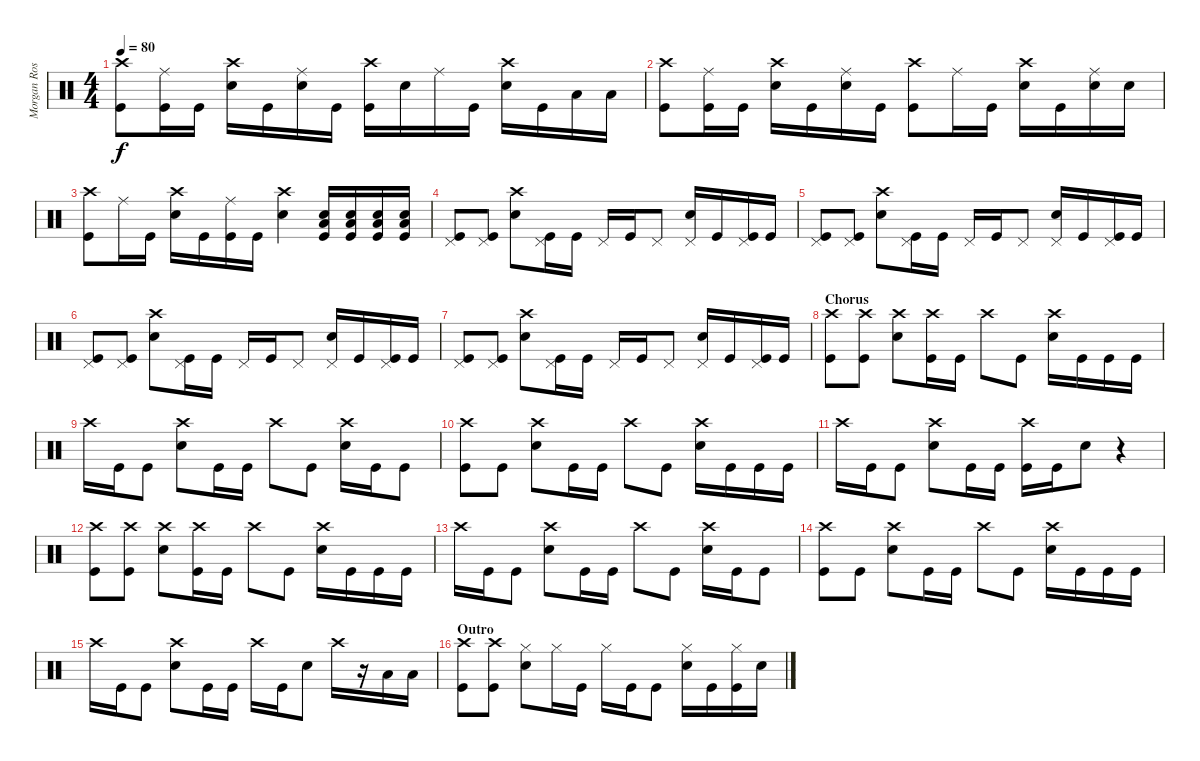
\track ("Morgan Rose" "Morgan Ros") {instrument percussion}
\staff {score}
\articulation defaults
\ts (4 4)
\tempo 80
\clef neutral
\ks c
("Crash high (hit)" "Kick (hit)").8{dy f} ("Ride (middle)" "Kick (hit)").16 "Kick (hit)".16 ("Crash high (hit)" "Snare (hit) 2").16 "Kick (hit)".16 ("Ride (middle)" "Snare (hit) 2").16 "Kick (hit)".16 ("Crash high (hit)" "Kick (hit)").16 "Snare (hit) 2".16 "Ride (middle)".16 "Kick (hit)".16 ("Crash high (hit)" "Snare (hit) 2").16 "Kick (hit)".16 "Low Tom (hit)".16 "Low Tom (hit)".16 |
("Crash high (hit)" "Kick (hit)").8 ("Ride (middle)" "Kick (hit)").16 "Kick (hit)".16 ("Crash high (hit)" "Snare (hit) 2").16 "Kick (hit)".16 ("Ride (middle)" "Snare (hit) 2").16 "Kick (hit)".16 ("Crash high (hit)" "Kick (hit)").8 "Ride (middle)".16 "Kick (hit)".16 ("Crash high (hit)" "Snare (hit) 2").16 "Kick (hit)".16 ("Ride (middle)" "Snare (hit) 2").16 "Snare (hit) 2".16 |
("Crash high (hit)" "Kick (hit)").8 "Ride (middle)".16 "Kick (hit)".16 ("Crash high (hit)" "Snare (hit) 2").16 "Kick (hit)".16 ("Ride (middle)" "Kick (hit)").16 "Kick (hit)".16 ("Crash high (hit)" "Snare (hit) 2").4 ("Low Tom (hit)" "Snare (hit) 2" "Kick (hit)").16 ("Low Tom (hit)" "Snare (hit) 2" "Kick (hit)").16 ("Low Tom (hit)" "Snare (hit) 2" "Kick (hit)").16 ("Low Tom (hit)" "Snare (hit) 2" "Kick (hit)").16 |
("Pedal Hi-Hat (hit)" "Kick (hit)").8 ("Pedal Hi-Hat (hit)" "Kick (hit)").8 ("Crash high (hit)" "Snare (hit) 2").8 ("Pedal Hi-Hat (hit)" "Kick (hit)").16 "Kick (hit)".16 "Pedal Hi-Hat (hit)".16 "Kick (hit)".16 "Pedal Hi-Hat (hit)".8 ("Pedal Hi-Hat (hit)" "Snare (hit) 2").16 "Kick (hit)".16 ("Pedal Hi-Hat (hit)" "Kick (hit)").16 "Kick (hit)".16 |
("Pedal Hi-Hat (hit)" "Kick (hit)").8 ("Pedal Hi-Hat (hit)" "Kick (hit)").8 ("Crash high (hit)" "Snare (hit) 2").8 ("Pedal Hi-Hat (hit)" "Kick (hit)").16 "Kick (hit)".16 "Pedal Hi-Hat (hit)".16 "Kick (hit)".16 "Pedal Hi-Hat (hit)".8 ("Pedal Hi-Hat (hit)" "Snare (hit) 2").16 "Kick (hit)".16 ("Pedal Hi-Hat (hit)" "Kick (hit)").16 "Kick (hit)".16 |
("Pedal Hi-Hat (hit)" "Kick (hit)").8 ("Pedal Hi-Hat (hit)" "Kick (hit)").8 ("Crash high (hit)" "Snare (hit) 2").8 ("Pedal Hi-Hat (hit)" "Kick (hit)").16 "Kick (hit)".16 "Pedal Hi-Hat (hit)".16 "Kick (hit)".16 "Pedal Hi-Hat (hit)".8 ("Pedal Hi-Hat (hit)" "Snare (hit) 2").16 "Kick (hit)".16 ("Pedal Hi-Hat (hit)" "Kick (hit)").16 "Kick (hit)".16 |
("Pedal Hi-Hat (hit)" "Kick (hit)").8 ("Pedal Hi-Hat (hit)" "Kick (hit)").8 ("Crash high (hit)" "Snare (hit) 2").8 ("Pedal Hi-Hat (hit)" "Kick (hit)").16 "Kick (hit)".16 "Pedal Hi-Hat (hit)".16 "Kick (hit)".16 "Pedal Hi-Hat (hit)".8 ("Pedal Hi-Hat (hit)" "Snare (hit) 2").16 "Kick (hit)".16 ("Pedal Hi-Hat (hit)" "Kick (hit)").16 "Kick (hit)".16 |
\section ("" "Chorus")
("Crash high (hit)" "Kick (hit)").8 ("Crash high (hit)" "Kick (hit)").8 ("Crash high (hit)" "Snare (hit) 2").8 ("Crash high (hit)" "Kick (hit)").16 "Kick (hit)".16 "Crash high (hit)".8 "Kick (hit)".8 ("Crash high (hit)" "Snare (hit) 2").16 "Kick (hit)".16 "Kick (hit)".16 "Kick (hit)".16 |
"Crash high (hit)".16 "Kick (hit)".16 "Kick (hit)".8 ("Crash high (hit)" "Snare (hit) 2").8 "Kick (hit)".16 "Kick (hit)".16 "Crash high (hit)".8 "Kick (hit)".8 ("Crash high (hit)" "Snare (hit) 2").16 "Kick (hit)".16 "Kick (hit)".8 |
("Crash high (hit)" "Kick (hit)").8 "Kick (hit)".8 ("Crash high (hit)" "Snare (hit) 2").8 "Kick (hit)".16 "Kick (hit)".16 "Crash high (hit)".8 "Kick (hit)".8 ("Crash high (hit)" "Snare (hit) 2").16 "Kick (hit)".16 "Kick (hit)".16 "Kick (hit)".16 |
"Crash high (hit)".16 "Kick (hit)".16 "Kick (hit)".8 ("Crash high (hit)" "Snare (hit) 2").8 "Kick (hit)".16 "Kick (hit)".16 ("Crash high (hit)" "Kick (hit)").16 "Kick (hit)".16 "Snare (hit) 2".8 r.4 |
("Crash high (hit)" "Kick (hit)").8 ("Crash high (hit)" "Kick (hit)").8 ("Crash high (hit)" "Snare (hit) 2").8 ("Crash high (hit)" "Kick (hit)").16 "Kick (hit)".16 "Crash high (hit)".8 "Kick (hit)".8 ("Crash high (hit)" "Snare (hit) 2").16 "Kick (hit)".16 "Kick (hit)".16 "Kick (hit)".16 |
"Crash high (hit)".16 "Kick (hit)".16 "Kick (hit)".8 ("Crash high (hit)" "Snare (hit) 2").8 "Kick (hit)".16 "Kick (hit)".16 "Crash high (hit)".8 "Kick (hit)".8 ("Crash high (hit)" "Snare (hit) 2").16 "Kick (hit)".16 "Kick (hit)".8 |
("Crash high (hit)" "Kick (hit)").8 "Kick (hit)".8 ("Crash high (hit)" "Snare (hit) 2").8 "Kick (hit)".16 "Kick (hit)".16 "Crash high (hit)".8 "Kick (hit)".8 ("Crash high (hit)" "Snare (hit) 2").16 "Kick (hit)".16 "Kick (hit)".16 "Kick (hit)".16 |
"Crash high (hit)".16 "Kick (hit)".16 "Kick (hit)".8 ("Crash high (hit)" "Snare (hit) 2").8 "Kick (hit)".16 "Kick (hit)".16 "Crash high (hit)".16 "Kick (hit)".16 "Snare (hit) 2".8 "Crash high (hit)".16 r.16 "Low Tom (hit)".16 "Low Tom (hit)".16 |
\section ("" "Outro")
("Crash high (hit)" "Kick (hit)").8 ("Crash high (hit)" "Kick (hit)").8 ("Hi-Hat (closed)" "Snare (hit) 2").8 "Hi-Hat (closed)".16 "Kick (hit)".16 "Hi-Hat (closed)".16 "Kick (hit)".16 "Kick (hit)".8 ("Hi-Hat (closed)" "Snare (hit) 2").16 "Kick (hit)".16 ("Hi-Hat (closed)" "Kick (hit)").16 "Snare (hit) 2".16
